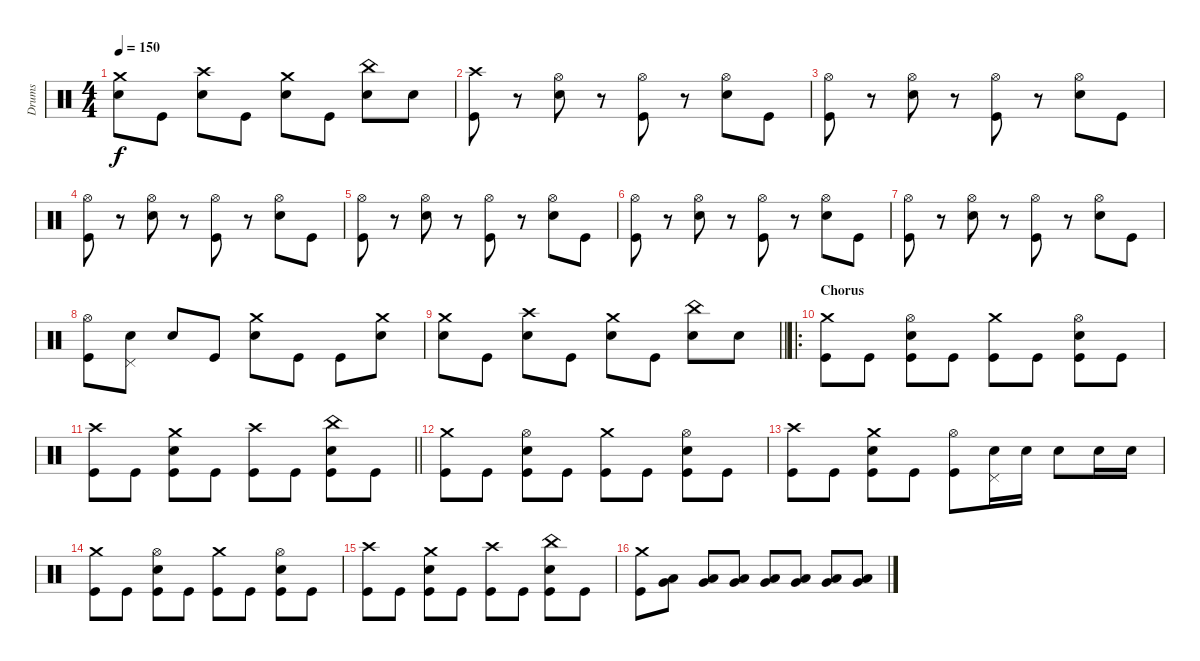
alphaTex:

\track ("Drums" "Drums") {instrument percussion}
\staff {score}
\articulation defaults
\ts (4 4)
\tempo 150
\clef neutral
\ks c
("Crash medium (hit)" "Electric Snare (hit)").8{dy f} "Kick (hit)".8 ("Crash high (hit)" "Electric Snare (hit)").8 "Kick (hit)".8 ("Crash medium (hit)" "Electric Snare (hit)").8 "Kick (hit)".8 ("China (hit)" "Electric Snare (hit)").8 "Electric Snare (hit)".8 |
("Crash high (hit)" "Kick (hit)").8 r.8 ("Hi-Hat (open)" "Electric Snare (hit)").8 r.8 ("Hi-Hat (open)" "Kick (hit)").8 r.8 ("Hi-Hat (open)" "Electric Snare (hit)").8 "Kick (hit)".8 |
("Hi-Hat (open)" "Kick (hit)").8 r.8 ("Hi-Hat (open)" "Electric Snare (hit)").8 r.8 ("Hi-Hat (open)" "Kick (hit)").8 r.8 ("Hi-Hat (open)" "Electric Snare (hit)").8 "Kick (hit)".8 |
("Hi-Hat (open)" "Kick (hit)").8 r.8 ("Hi-Hat (open)" "Electric Snare (hit)").8 r.8 ("Hi-Hat (open)" "Kick (hit)").8 r.8 ("Hi-Hat (open)" "Electric Snare (hit)").8 "Kick (hit)".8 |
("Hi-Hat (open)" "Kick (hit)").8 r.8 ("Hi-Hat (open)" "Electric Snare (hit)").8 r.8 ("Hi-Hat (open)" "Kick (hit)").8 r.8 ("Hi-Hat (open)" "Electric Snare (hit)").8 "Kick (hit)".8 |
("Hi-Hat (open)" "Kick (hit)").8 r.8 ("Hi-Hat (open)" "Electric Snare (hit)").8 r.8 ("Hi-Hat (open)" "Kick (hit)").8 r.8 ("Hi-Hat (open)" "Electric Snare (hit)").8 "Kick (hit)".8 |
("Hi-Hat (open)" "Kick (hit)").8 r.8 ("Hi-Hat (open)" "Electric Snare (hit)").8 r.8 ("Hi-Hat (open)" "Kick (hit)").8 r.8 ("Hi-Hat (open)" "Electric Snare (hit)").8 "Kick (hit)".8 |
("Hi-Hat (open)" "Kick (hit)").8 ("Pedal Hi-Hat (hit)" "Electric Snare (hit)").8 "Electric Snare (hit)".8 "Kick (hit)".8 ("Crash medium (hit)" "Electric Snare (hit)").8 "Kick (hit)".8 "Kick (hit)".8 ("Crash medium (hit)" "Electric Snare (hit)").8 |
\barLineRight lightlight
("Crash medium (hit)" "Electric Snare (hit)").8 "Kick (hit)".8 ("Crash high (hit)" "Electric Snare (hit)").8 "Kick (hit)".8 ("Crash medium (hit)" "Electric Snare (hit)").8 "Kick (hit)".8 ("China (hit)" "Electric Snare (hit)").8 "Electric Snare (hit)".8 |
\ro
\section ("" "Chorus")
("Crash medium (hit)" "Kick (hit)").8 "Kick (hit)".8 ("Hi-Hat (open)" "Electric Snare (hit)" "Kick (hit)").8 "Kick (hit)".8 ("Crash medium (hit)" "Kick (hit)").8 "Kick (hit)".8 ("Hi-Hat (open)" "Electric Snare (hit)" "Kick (hit)").8 "Kick (hit)".8 |
\barLineRight lightlight
("Crash high (hit)" "Kick (hit)").8 "Kick (hit)".8 ("Crash medium (hit)" "Electric Snare (hit)" "Kick (hit)").8 "Kick (hit)".8 ("Crash high (hit)" "Kick (hit)").8 "Kick (hit)".8 ("China (hit)" "Electric Snare (hit)" "Kick (hit)").8 "Kick (hit)".8 |
("Crash medium (hit)" "Kick (hit)").8 "Kick (hit)".8 ("Hi-Hat (open)" "Electric Snare (hit)" "Kick (hit)").8 "Kick (hit)".8 ("Crash medium (hit)" "Kick (hit)").8 "Kick (hit)".8 ("Hi-Hat (open)" "Electric Snare (hit)" "Kick (hit)").8 "Kick (hit)".8 |
("Crash high (hit)" "Kick (hit)").8 "Kick (hit)".8 ("Crash medium (hit)" "Electric Snare (hit)" "Kick (hit)").8 "Kick (hit)".8 ("Hi-Hat (open)" "Kick (hit)").8 ("Pedal Hi-Hat (hit)" "Electric Snare (hit)").16 "Electric Snare (hit)".16 "Electric Snare (hit)".8 "Electric Snare (hit)".16 "Electric Snare (hit)".16 |
("Crash medium (hit)" "Kick (hit)").8 "Kick (hit)".8 ("Hi-Hat (open)" "Electric Snare (hit)" "Kick (hit)").8 "Kick (hit)".8 ("Crash medium (hit)" "Kick (hit)").8 "Kick (hit)".8 ("Hi-Hat (open)" "Electric Snare (hit)" "Kick (hit)").8 "Kick (hit)".8 |
("Crash high (hit)" "Kick (hit)").8 "Kick (hit)".8 ("Crash medium (hit)" "Electric Snare (hit)" "Kick (hit)").8 "Kick (hit)".8 ("Crash high (hit)" "Kick (hit)").8 "Kick (hit)".8 ("China (hit)" "Electric Snare (hit)" "Kick (hit)").8 "Kick (hit)".8 |
("Crash medium (hit)" "Kick (hit)").8 ("Low Tom (hit)" "Very Low Tom (hit)").8 ("Low Tom (hit)" "Very Low Tom (hit)").8 ("Low Tom (hit)" "Very Low Tom (hit)").8 ("Low Tom (hit)" "Very Low Tom (hit)").8 ("Low Tom (hit)" "Very Low Tom (hit)").8 ("Low Tom (hit)" "Very Low Tom (hit)").8 ("Low Tom (hit)" "Very Low Tom (hit)").8
